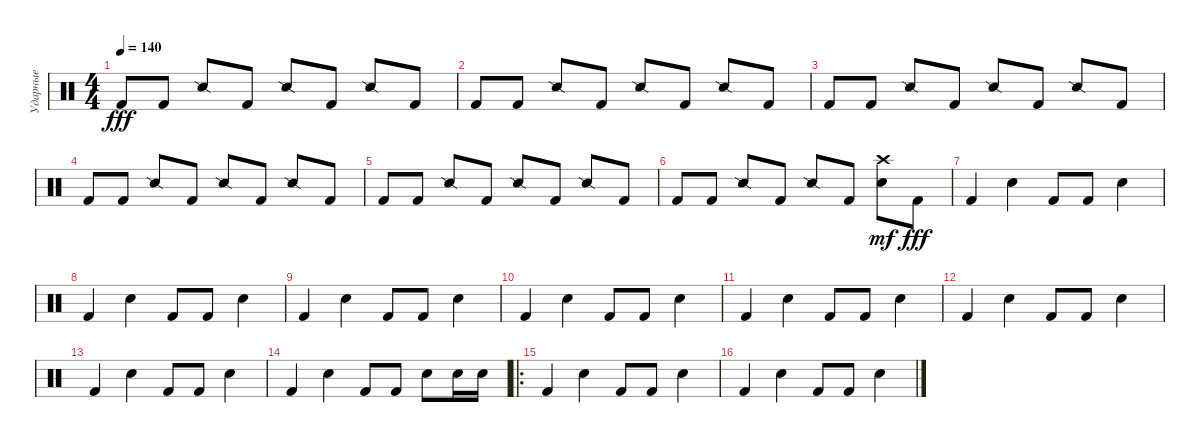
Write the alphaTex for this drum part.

\track ("Ударные" "Ударные") {instrument percussion}
\staff {score}
\articulation defaults
\ts (4 4)
\tempo 140
\clef neutral
\ks c "Kick (hit) 2".8{dy fff} "Kick (hit) 2".8 "Snare (side stick) 2".8 "Kick (hit) 2".8 "Snare (side stick) 2".8 "Kick (hit) 2".8 "Snare (side stick) 2".8 "Kick (hit) 2".8
|
"Kick (hit) 2".8 "Kick (hit) 2".8 "Snare (side stick) 2".8 "Kick (hit) 2".8 "Snare (side stick) 2".8 "Kick (hit) 2".8 "Snare (side stick) 2".8 "Kick (hit) 2".8 |
"Kick (hit) 2".8 "Kick (hit) 2".8 "Snare (side stick) 2".8 "Kick (hit) 2".8 "Snare (side stick) 2".8 "Kick (hit) 2".8 "Snare (side stick) 2".8 "Kick (hit) 2".8 |
"Kick (hit) 2".8 "Kick (hit) 2".8 "Snare (side stick) 2".8 "Kick (hit) 2".8 "Snare (side stick) 2".8 "Kick (hit) 2".8 "Snare (side stick) 2".8 "Kick (hit) 2".8 |
"Kick (hit) 2".8 "Kick (hit) 2".8 "Snare (side stick) 2".8 "Kick (hit) 2".8 "Snare (side stick) 2".8 "Kick (hit) 2".8 "Snare (side stick) 2".8 "Kick (hit) 2".8 |
"Kick (hit) 2".8 "Kick (hit) 2".8 "Snare (side stick) 2".8 "Kick (hit) 2".8 "Snare (side stick) 2".8 "Kick (hit) 2".8 ("Electric Snare (hit)" "Crash high (hit)").8{dy mf} "Kick (hit) 2".8{dy fff} |
"Kick (hit) 2".4 "Electric Snare (hit)".4 "Kick (hit) 2".8 "Kick (hit) 2".8 "Electric Snare (hit)".4 |
"Kick (hit) 2".4 "Electric Snare (hit)".4 "Kick (hit) 2".8 "Kick (hit) 2".8 "Electric Snare (hit)".4 |
"Kick (hit) 2".4 "Electric Snare (hit)".4 "Kick (hit) 2".8 "Kick (hit) 2".8 "Electric Snare (hit)".4 |
"Kick (hit) 2".4 "Electric Snare (hit)".4 "Kick (hit) 2".8 "Kick (hit) 2".8 "Electric Snare (hit)".4 |
"Kick (hit) 2".4 "Electric Snare (hit)".4 "Kick (hit) 2".8 "Kick (hit) 2".8 "Electric Snare (hit)".4 |
"Kick (hit) 2".4 "Electric Snare (hit)".4 "Kick (hit) 2".8 "Kick (hit) 2".8 "Electric Snare (hit)".4 |
"Kick (hit) 2".4 "Electric Snare (hit)".4 "Kick (hit) 2".8 "Kick (hit) 2".8 "Electric Snare (hit)".4 |
"Kick (hit) 2".4 "Electric Snare (hit)".4 "Kick (hit) 2".8 "Kick (hit) 2".8 "Electric Snare (hit)".8 "Electric Snare (hit)".16 "Electric Snare (hit)".16 |
\ro "Kick (hit) 2".4 "Electric Snare (hit)".4 "Kick (hit) 2".8 "Kick (hit) 2".8 "Electric Snare (hit)".4
|
"Kick (hit) 2".4 "Electric Snare (hit)".4 "Kick (hit) 2".8 "Kick (hit) 2".8 "Electric Snare (hit)".4
